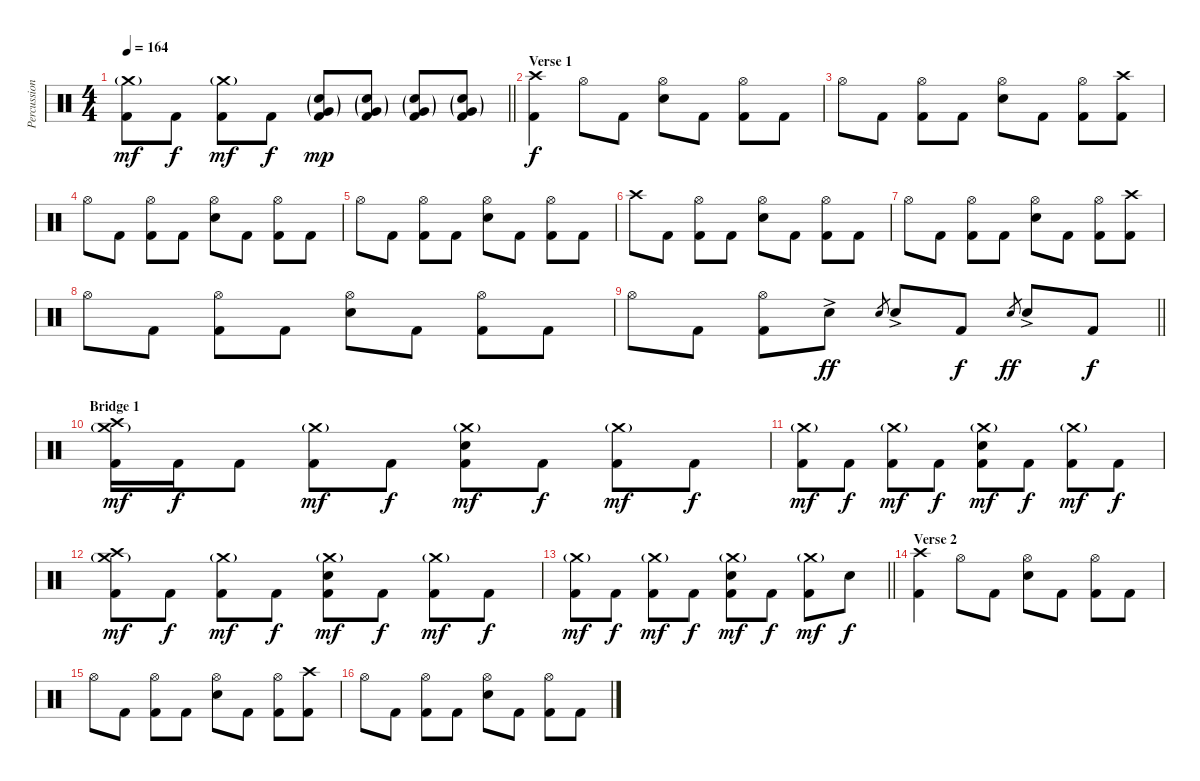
\track ("Percussion - Michael Ambrose" "Percussion") {instrument percussion}
\staff {score}
\articulation defaults
\ts (4 4)
\tempo 164
\clef neutral
\barLineRight lightlight
\ks c
("Crash medium (hit)"{g} "Kick (hit) 2").8{dy mf} "Kick (hit) 2".8{dy f} ("Crash medium (hit)"{g} "Kick (hit) 2").8{dy mf} "Kick (hit) 2".8{dy f} ("Very Low Tom (hit)"{g} "Electric Snare (hit)"{g} "Kick (hit) 2").8{dy mp} ("Very Low Tom (hit)"{g} "Electric Snare (hit)"{g} "Kick (hit) 2").8 ("Very Low Tom (hit)"{g} "Electric Snare (hit)"{g} "Kick (hit) 2").8 ("Very Low Tom (hit)"{g} "Electric Snare (hit)"{g} "Kick (hit) 2").8 |
\section ("" "Verse 1")
("Crash high (hit)" "Kick (hit) 2").4{dy f} "Hi-Hat (open)".8 "Kick (hit) 2".8 ("Hi-Hat (open)" "Electric Snare (hit)").8 "Kick (hit) 2".8 ("Hi-Hat (open)" "Kick (hit) 2").8 "Kick (hit) 2".8 |
"Hi-Hat (open)".8 "Kick (hit) 2".8 ("Hi-Hat (open)" "Kick (hit) 2").8 "Kick (hit) 2".8 ("Hi-Hat (open)" "Electric Snare (hit)").8 "Kick (hit) 2".8 ("Hi-Hat (open)" "Kick (hit) 2").8 ("Crash high (hit)" "Kick (hit) 2").8 |
"Hi-Hat (open)".8 "Kick (hit) 2".8 ("Hi-Hat (open)" "Kick (hit) 2").8 "Kick (hit) 2".8 ("Hi-Hat (open)" "Electric Snare (hit)").8 "Kick (hit) 2".8 ("Hi-Hat (open)" "Kick (hit) 2").8 "Kick (hit) 2".8 |
"Hi-Hat (open)".8 "Kick (hit) 2".8 ("Hi-Hat (open)" "Kick (hit) 2").8 "Kick (hit) 2".8 ("Hi-Hat (open)" "Electric Snare (hit)").8 "Kick (hit) 2".8 ("Hi-Hat (open)" "Kick (hit) 2").8 "Kick (hit) 2".8 |
"Crash high (hit)".8 "Kick (hit) 2".8 ("Hi-Hat (open)" "Kick (hit) 2").8 "Kick (hit) 2".8 ("Hi-Hat (open)" "Electric Snare (hit)").8 "Kick (hit) 2".8 ("Hi-Hat (open)" "Kick (hit) 2").8 "Kick (hit) 2".8 |
"Hi-Hat (open)".8 "Kick (hit) 2".8 ("Hi-Hat (open)" "Kick (hit) 2").8 "Kick (hit) 2".8 ("Hi-Hat (open)" "Electric Snare (hit)").8 "Kick (hit) 2".8 ("Hi-Hat (open)" "Kick (hit) 2").8 ("Crash high (hit)" "Kick (hit) 2").8 |
"Hi-Hat (open)".8 "Kick (hit) 2".8 ("Hi-Hat (open)" "Kick (hit) 2").8 "Kick (hit) 2".8 ("Hi-Hat (open)" "Electric Snare (hit)").8 "Kick (hit) 2".8 ("Hi-Hat (open)" "Kick (hit) 2").8 "Kick (hit) 2".8 |
\barLineRight lightlight "Hi-Hat (open)".8 "Kick (hit) 2".8
("Hi-Hat (open)" "Kick (hit) 2").8 "Electric Snare (hit)"{ac}.8{dy ff} "Electric Snare (hit)".8{gr} "Electric Snare (hit)"{ac}.8 "Kick (hit) 2".8{dy f} "Electric Snare (hit)".8{gr dy ff} "Electric Snare (hit)"{ac}.8 "Kick (hit) 2".8{dy f} |
\section ("" "Bridge 1")
("Crash high (hit)" "Crash medium (hit)"{g} "Kick (hit) 2").16{dy mf} "Kick (hit) 2".16{dy f} "Kick (hit) 2".8 ("Crash medium (hit)"{g} "Kick (hit) 2").8{dy mf} "Kick (hit) 2".8{dy f} ("Crash medium (hit)"{g} "Electric Snare (hit)" "Kick (hit) 2").8{dy mf} "Kick (hit) 2".8{dy f} ("Crash medium (hit)"{g} "Kick (hit) 2").8{dy mf} "Kick (hit) 2".8{dy f} |
("Crash medium (hit)"{g} "Kick (hit) 2").8{dy mf} "Kick (hit) 2".8{dy f} ("Crash medium (hit)"{g} "Kick (hit) 2").8{dy mf} "Kick (hit) 2".8{dy f} ("Crash medium (hit)"{g} "Electric Snare (hit)" "Kick (hit) 2").8{dy mf} "Kick (hit) 2".8{dy f} ("Crash medium (hit)"{g} "Kick (hit) 2").8{dy mf} "Kick (hit) 2".8{dy f} |
("Crash high (hit)" "Crash medium (hit)"{g} "Kick (hit) 2").8{dy mf} "Kick (hit) 2".8{dy f} ("Crash medium (hit)"{g} "Kick (hit) 2").8{dy mf} "Kick (hit) 2".8{dy f} ("Crash medium (hit)"{g} "Electric Snare (hit)" "Kick (hit) 2").8{dy mf} "Kick (hit) 2".8{dy f} ("Crash medium (hit)"{g} "Kick (hit) 2").8{dy mf} "Kick (hit) 2".8{dy f} |
\barLineRight lightlight
("Crash medium (hit)"{g} "Kick (hit) 2").8{dy mf} "Kick (hit) 2".8{dy f} ("Crash medium (hit)"{g} "Kick (hit) 2").8{dy mf} "Kick (hit) 2".8{dy f} ("Crash medium (hit)"{g} "Electric Snare (hit)" "Kick (hit) 2").8{dy mf} "Kick (hit) 2".8{dy f} ("Crash medium (hit)"{g} "Kick (hit) 2").8{dy mf} "Electric Snare (hit)".8{dy f} |
\section ("" "Verse 2")
("Crash high (hit)" "Kick (hit) 2").4 "Hi-Hat (open)".8 "Kick (hit) 2".8 ("Hi-Hat (open)" "Electric Snare (hit)").8 "Kick (hit) 2".8 ("Hi-Hat (open)" "Kick (hit) 2").8 "Kick (hit) 2".8 |
"Hi-Hat (open)".8 "Kick (hit) 2".8 ("Hi-Hat (open)" "Kick (hit) 2").8 "Kick (hit) 2".8 ("Hi-Hat (open)" "Electric Snare (hit)").8 "Kick (hit) 2".8 ("Hi-Hat (open)" "Kick (hit) 2").8 ("Crash high (hit)" "Kick (hit) 2").8 |
"Hi-Hat (open)".8 "Kick (hit) 2".8 ("Hi-Hat (open)" "Kick (hit) 2").8 "Kick (hit) 2".8 ("Hi-Hat (open)" "Electric Snare (hit)").8 "Kick (hit) 2".8 ("Hi-Hat (open)" "Kick (hit) 2").8 "Kick (hit) 2".8
